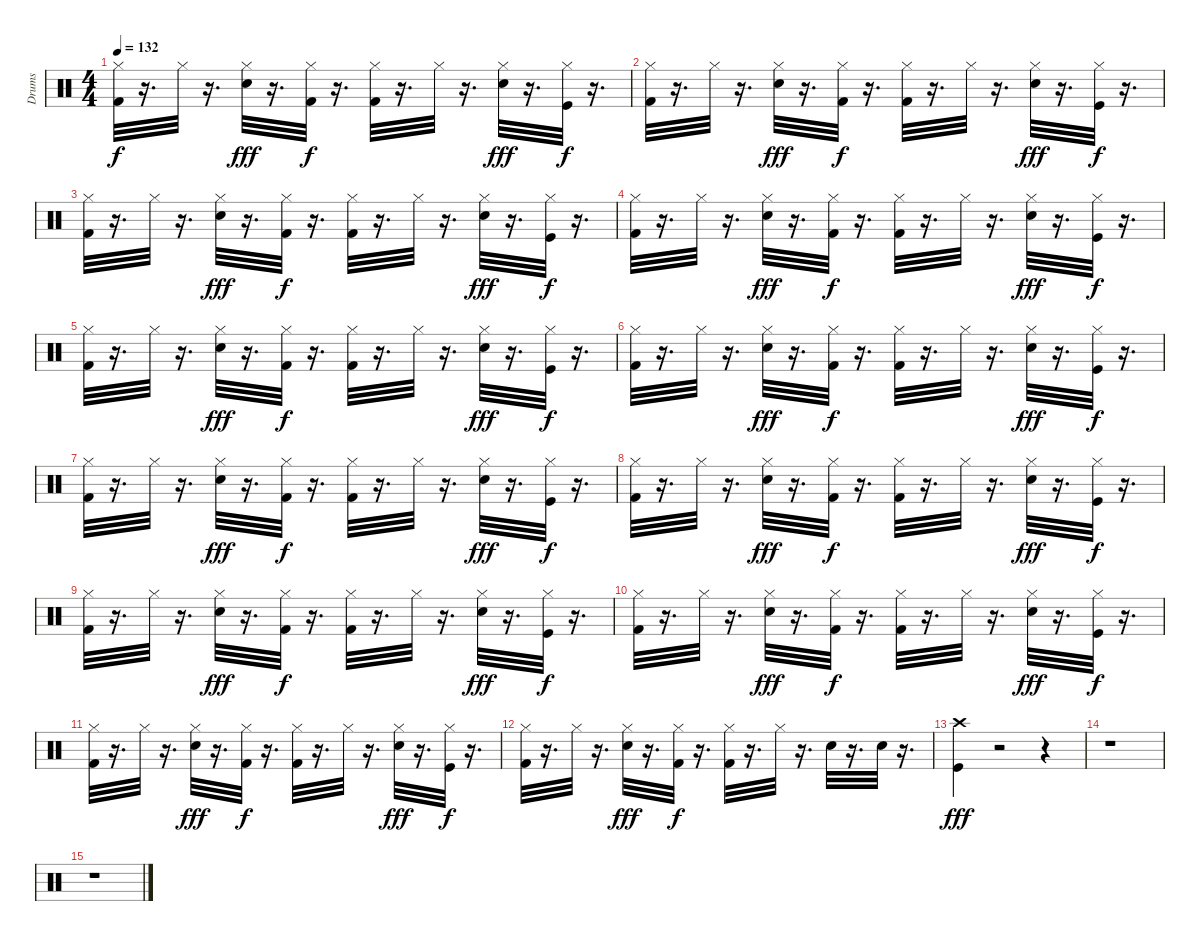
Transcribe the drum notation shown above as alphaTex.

\track ("Drums" "Drums") {instrument percussion}
\staff {score}
\articulation defaults
\ts (4 4)
\tempo 132
\clef neutral
\ks c
("Hi-Hat (closed)" "Kick (hit) 2").32{dy f} r.16{d} "Hi-Hat (closed)".32 r.16{d} ("Hi-Hat (closed)" "Hand Clap (hit)").32{dy fff} r.16{d} ("Hi-Hat (closed)" "Kick (hit) 2").32{dy f} r.16{d} ("Hi-Hat (closed)" "Kick (hit) 2").32 r.16{d} "Hi-Hat (closed)".32 r.16{d} ("Hi-Hat (closed)" "Hand Clap (hit)").32{dy fff} r.16{d} ("Hi-Hat (closed)" "Kick (hit)").32{dy f} r.16{d} |
("Hi-Hat (closed)" "Kick (hit) 2").32 r.16{d} "Hi-Hat (closed)".32 r.16{d} ("Hi-Hat (closed)" "Hand Clap (hit)").32{dy fff} r.16{d} ("Hi-Hat (closed)" "Kick (hit) 2").32{dy f} r.16{d} ("Hi-Hat (closed)" "Kick (hit) 2").32 r.16{d} "Hi-Hat (closed)".32 r.16{d} ("Hi-Hat (closed)" "Hand Clap (hit)").32{dy fff} r.16{d} ("Hi-Hat (closed)" "Kick (hit)").32{dy f} r.16{d} |
("Hi-Hat (closed)" "Kick (hit) 2").32 r.16{d} "Hi-Hat (closed)".32 r.16{d} ("Hi-Hat (closed)" "Hand Clap (hit)").32{dy fff} r.16{d} ("Hi-Hat (closed)" "Kick (hit) 2").32{dy f} r.16{d} ("Hi-Hat (closed)" "Kick (hit) 2").32 r.16{d} "Hi-Hat (closed)".32 r.16{d} ("Hi-Hat (closed)" "Hand Clap (hit)").32{dy fff} r.16{d} ("Hi-Hat (closed)" "Kick (hit)").32{dy f} r.16{d} |
("Hi-Hat (closed)" "Kick (hit) 2").32 r.16{d} "Hi-Hat (closed)".32 r.16{d} ("Hi-Hat (closed)" "Hand Clap (hit)").32{dy fff} r.16{d} ("Hi-Hat (closed)" "Kick (hit) 2").32{dy f} r.16{d} ("Hi-Hat (closed)" "Kick (hit) 2").32 r.16{d} "Hi-Hat (closed)".32 r.16{d} ("Hi-Hat (closed)" "Hand Clap (hit)").32{dy fff} r.16{d} ("Hi-Hat (closed)" "Kick (hit)").32{dy f} r.16{d} |
("Hi-Hat (closed)" "Kick (hit) 2").32 r.16{d} "Hi-Hat (closed)".32 r.16{d} ("Hi-Hat (closed)" "Hand Clap (hit)").32{dy fff} r.16{d} ("Hi-Hat (closed)" "Kick (hit) 2").32{dy f} r.16{d} ("Hi-Hat (closed)" "Kick (hit) 2").32 r.16{d} "Hi-Hat (closed)".32 r.16{d} ("Hi-Hat (closed)" "Hand Clap (hit)").32{dy fff} r.16{d} ("Hi-Hat (closed)" "Kick (hit)").32{dy f} r.16{d} |
("Hi-Hat (closed)" "Kick (hit) 2").32 r.16{d} "Hi-Hat (closed)".32 r.16{d} ("Hi-Hat (closed)" "Hand Clap (hit)").32{dy fff} r.16{d} ("Hi-Hat (closed)" "Kick (hit) 2").32{dy f} r.16{d} ("Hi-Hat (closed)" "Kick (hit) 2").32 r.16{d} "Hi-Hat (closed)".32 r.16{d} ("Hi-Hat (closed)" "Hand Clap (hit)").32{dy fff} r.16{d} ("Hi-Hat (closed)" "Kick (hit)").32{dy f} r.16{d} |
("Hi-Hat (closed)" "Kick (hit) 2").32 r.16{d} "Hi-Hat (closed)".32 r.16{d} ("Hi-Hat (closed)" "Hand Clap (hit)").32{dy fff} r.16{d} ("Hi-Hat (closed)" "Kick (hit) 2").32{dy f} r.16{d} ("Hi-Hat (closed)" "Kick (hit) 2").32 r.16{d} "Hi-Hat (closed)".32 r.16{d} ("Hi-Hat (closed)" "Hand Clap (hit)").32{dy fff} r.16{d} ("Hi-Hat (closed)" "Kick (hit)").32{dy f} r.16{d} |
("Hi-Hat (closed)" "Kick (hit) 2").32 r.16{d} "Hi-Hat (closed)".32 r.16{d} ("Hi-Hat (closed)" "Hand Clap (hit)").32{dy fff} r.16{d} ("Hi-Hat (closed)" "Kick (hit) 2").32{dy f} r.16{d} ("Hi-Hat (closed)" "Kick (hit) 2").32 r.16{d} "Hi-Hat (closed)".32 r.16{d} ("Hi-Hat (closed)" "Hand Clap (hit)").32{dy fff} r.16{d} ("Hi-Hat (closed)" "Kick (hit)").32{dy f} r.16{d} |
("Hi-Hat (closed)" "Kick (hit) 2").32 r.16{d} "Hi-Hat (closed)".32 r.16{d} ("Hi-Hat (closed)" "Hand Clap (hit)").32{dy fff} r.16{d} ("Hi-Hat (closed)" "Kick (hit) 2").32{dy f} r.16{d} ("Hi-Hat (closed)" "Kick (hit) 2").32 r.16{d} "Hi-Hat (closed)".32 r.16{d} ("Hi-Hat (closed)" "Hand Clap (hit)").32{dy fff} r.16{d} ("Hi-Hat (closed)" "Kick (hit)").32{dy f} r.16{d} |
("Hi-Hat (closed)" "Kick (hit) 2").32 r.16{d} "Hi-Hat (closed)".32 r.16{d} ("Hi-Hat (closed)" "Hand Clap (hit)").32{dy fff} r.16{d} ("Hi-Hat (closed)" "Kick (hit) 2").32{dy f} r.16{d} ("Hi-Hat (closed)" "Kick (hit) 2").32 r.16{d} "Hi-Hat (closed)".32 r.16{d} ("Hi-Hat (closed)" "Hand Clap (hit)").32{dy fff} r.16{d} ("Hi-Hat (closed)" "Kick (hit)").32{dy f} r.16{d} |
("Hi-Hat (closed)" "Kick (hit) 2").32 r.16{d} "Hi-Hat (closed)".32 r.16{d} ("Hi-Hat (closed)" "Hand Clap (hit)").32{dy fff} r.16{d} ("Hi-Hat (closed)" "Kick (hit) 2").32{dy f} r.16{d} ("Hi-Hat (closed)" "Kick (hit) 2").32 r.16{d} "Hi-Hat (closed)".32 r.16{d} ("Hi-Hat (closed)" "Hand Clap (hit)").32{dy fff} r.16{d} ("Hi-Hat (closed)" "Kick (hit)").32{dy f} r.16{d} |
("Hi-Hat (closed)" "Kick (hit) 2").32 r.16{d} "Hi-Hat (closed)".32 r.16{d} ("Hi-Hat (closed)" "Hand Clap (hit)").32{dy fff} r.16{d} ("Hi-Hat (closed)" "Kick (hit) 2").32{dy f} r.16{d} ("Hi-Hat (closed)" "Kick (hit) 2").32 r.16{d} "Hi-Hat (closed)".32 r.16{d} "Snare (hit) 2".32 r.16{d} "Snare (hit) 2".32 r.16{d} |
("Kick (hit)" "Crash high (hit)").4{dy fff} r.2 r.4 |
r.1 |
r.1
